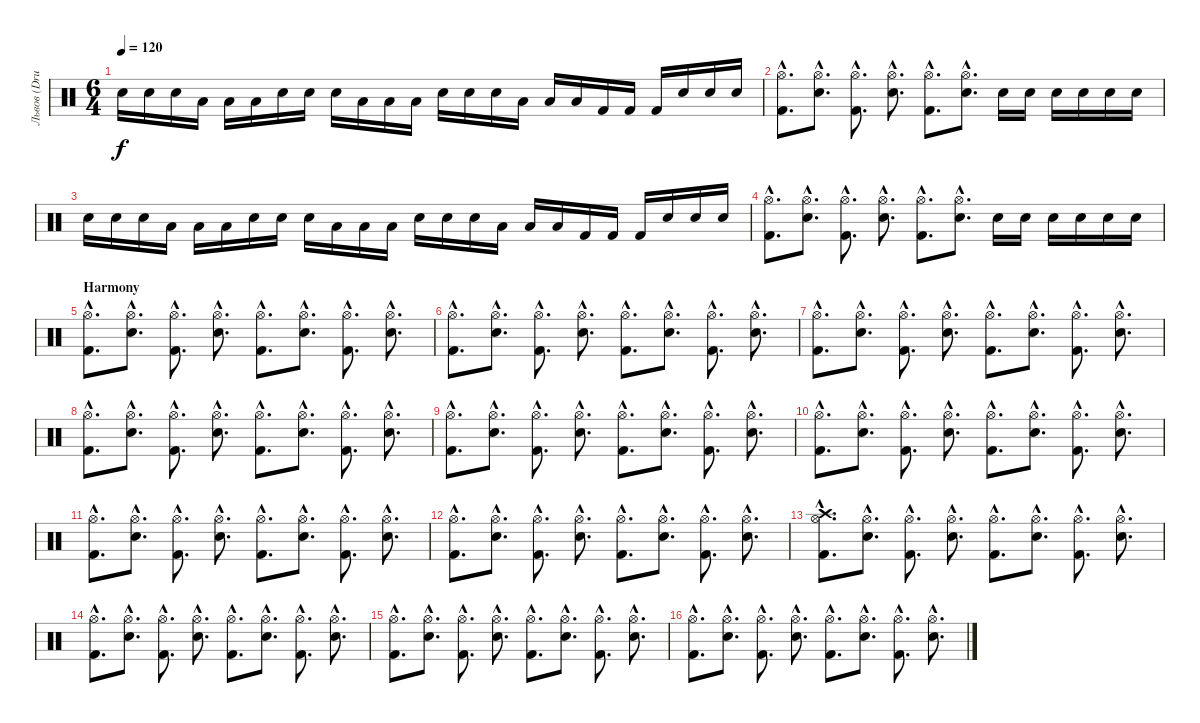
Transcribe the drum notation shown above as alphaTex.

\track ("Львов (Drums)" "Львов (Dru") {instrument percussion}
\staff {score}
\articulation defaults
\ts (6 4)
\tempo 120
\clef neutral
\ks c "Electric Snare (hit)".16{dy f} "Electric Snare (hit)".16 "Electric Snare (hit)".16 "Low Tom (hit)".16 "Low Tom (hit)".16 "Low Tom (hit)".16 "Electric Snare (hit)".16 "Electric Snare (hit)".16 "Electric Snare (hit)".16 "Low Tom (hit)".16 "Low Tom (hit)".16 "Low Tom (hit)".16 "Electric Snare (hit)".16 "Electric Snare (hit)".16 "Electric Snare (hit)".16 "Low Tom (hit)".16 "Low Tom (hit)".16 "Low Tom (hit)".16 "Kick (hit) 2".16 "Kick (hit) 2".16 "Kick (hit) 2".16 "Electric Snare (hit)".16 "Electric Snare (hit)".16 "Electric Snare (hit)".16
|
("Kick (hit) 2"{hac} "Hi-Hat (open)"{hac}).8{d} ("Electric Snare (hit)"{hac} "Hi-Hat (open)"{hac}).8{d} ("Kick (hit) 2"{hac} "Hi-Hat (open)"{hac}).8{d} ("Electric Snare (hit)"{hac} "Hi-Hat (open)"{hac}).8{d} ("Kick (hit) 2"{hac} "Hi-Hat (open)"{hac}).8{d} ("Electric Snare (hit)"{hac} "Hi-Hat (open)"{hac}).8{d} "Electric Snare (hit)".16 "Electric Snare (hit)".16 "Electric Snare (hit)".16 "Electric Snare (hit)".16 "Electric Snare (hit)".16 "Electric Snare (hit)".16 |
"Electric Snare (hit)".16 "Electric Snare (hit)".16 "Electric Snare (hit)".16 "Low Tom (hit)".16 "Low Tom (hit)".16 "Low Tom (hit)".16 "Electric Snare (hit)".16 "Electric Snare (hit)".16 "Electric Snare (hit)".16 "Low Tom (hit)".16 "Low Tom (hit)".16 "Low Tom (hit)".16 "Electric Snare (hit)".16 "Electric Snare (hit)".16 "Electric Snare (hit)".16 "Low Tom (hit)".16 "Low Tom (hit)".16 "Low Tom (hit)".16 "Kick (hit) 2".16 "Kick (hit) 2".16 "Kick (hit) 2".16 "Electric Snare (hit)".16 "Electric Snare (hit)".16 "Electric Snare (hit)".16 |
("Kick (hit) 2"{hac} "Hi-Hat (open)"{hac}).8{d} ("Electric Snare (hit)"{hac} "Hi-Hat (open)"{hac}).8{d} ("Kick (hit) 2"{hac} "Hi-Hat (open)"{hac}).8{d} ("Electric Snare (hit)"{hac} "Hi-Hat (open)"{hac}).8{d} ("Kick (hit) 2"{hac} "Hi-Hat (open)"{hac}).8{d} ("Electric Snare (hit)"{hac} "Hi-Hat (open)"{hac}).8{d} "Electric Snare (hit)".16 "Electric Snare (hit)".16 "Electric Snare (hit)".16 "Electric Snare (hit)".16 "Electric Snare (hit)".16 "Electric Snare (hit)".16 |
\section ("" "Harmony")
("Kick (hit) 2"{hac} "Hi-Hat (open)"{hac}).8{d} ("Electric Snare (hit)"{hac} "Hi-Hat (open)"{hac}).8{d} ("Kick (hit) 2"{hac} "Hi-Hat (open)"{hac}).8{d} ("Electric Snare (hit)"{hac} "Hi-Hat (open)"{hac}).8{d} ("Kick (hit) 2"{hac} "Hi-Hat (open)"{hac}).8{d} ("Electric Snare (hit)"{hac} "Hi-Hat (open)"{hac}).8{d} ("Kick (hit) 2"{hac} "Hi-Hat (open)"{hac}).8{d} ("Electric Snare (hit)"{hac} "Hi-Hat (open)"{hac}).8{d} |
("Kick (hit) 2"{hac} "Hi-Hat (open)"{hac}).8{d} ("Electric Snare (hit)"{hac} "Hi-Hat (open)"{hac}).8{d} ("Kick (hit) 2"{hac} "Hi-Hat (open)"{hac}).8{d} ("Electric Snare (hit)"{hac} "Hi-Hat (open)"{hac}).8{d} ("Kick (hit) 2"{hac} "Hi-Hat (open)"{hac}).8{d} ("Electric Snare (hit)"{hac} "Hi-Hat (open)"{hac}).8{d} ("Kick (hit) 2"{hac} "Hi-Hat (open)"{hac}).8{d} ("Electric Snare (hit)"{hac} "Hi-Hat (open)"{hac}).8{d} |
("Kick (hit) 2"{hac} "Hi-Hat (open)"{hac}).8{d} ("Electric Snare (hit)"{hac} "Hi-Hat (open)"{hac}).8{d} ("Kick (hit) 2"{hac} "Hi-Hat (open)"{hac}).8{d} ("Electric Snare (hit)"{hac} "Hi-Hat (open)"{hac}).8{d} ("Kick (hit) 2"{hac} "Hi-Hat (open)"{hac}).8{d} ("Electric Snare (hit)"{hac} "Hi-Hat (open)"{hac}).8{d} ("Kick (hit) 2"{hac} "Hi-Hat (open)"{hac}).8{d} ("Electric Snare (hit)"{hac} "Hi-Hat (open)"{hac}).8{d} |
("Kick (hit) 2"{hac} "Hi-Hat (open)"{hac}).8{d} ("Electric Snare (hit)"{hac} "Hi-Hat (open)"{hac}).8{d} ("Kick (hit) 2"{hac} "Hi-Hat (open)"{hac}).8{d} ("Electric Snare (hit)"{hac} "Hi-Hat (open)"{hac}).8{d} ("Kick (hit) 2"{hac} "Hi-Hat (open)"{hac}).8{d} ("Electric Snare (hit)"{hac} "Hi-Hat (open)"{hac}).8{d} ("Kick (hit) 2"{hac} "Hi-Hat (open)"{hac}).8{d} ("Electric Snare (hit)"{hac} "Hi-Hat (open)"{hac}).8{d} |
("Kick (hit) 2"{hac} "Hi-Hat (open)"{hac}).8{d} ("Electric Snare (hit)"{hac} "Hi-Hat (open)"{hac}).8{d} ("Kick (hit) 2"{hac} "Hi-Hat (open)"{hac}).8{d} ("Electric Snare (hit)"{hac} "Hi-Hat (open)"{hac}).8{d} ("Kick (hit) 2"{hac} "Hi-Hat (open)"{hac}).8{d} ("Electric Snare (hit)"{hac} "Hi-Hat (open)"{hac}).8{d} ("Kick (hit) 2"{hac} "Hi-Hat (open)"{hac}).8{d} ("Electric Snare (hit)"{hac} "Hi-Hat (open)"{hac}).8{d} |
("Kick (hit) 2"{hac} "Hi-Hat (open)"{hac}).8{d} ("Electric Snare (hit)"{hac} "Hi-Hat (open)"{hac}).8{d} ("Kick (hit) 2"{hac} "Hi-Hat (open)"{hac}).8{d} ("Electric Snare (hit)"{hac} "Hi-Hat (open)"{hac}).8{d} ("Kick (hit) 2"{hac} "Hi-Hat (open)"{hac}).8{d} ("Electric Snare (hit)"{hac} "Hi-Hat (open)"{hac}).8{d} ("Kick (hit) 2"{hac} "Hi-Hat (open)"{hac}).8{d} ("Electric Snare (hit)"{hac} "Hi-Hat (open)"{hac}).8{d} |
("Kick (hit) 2"{hac} "Hi-Hat (open)"{hac}).8{d} ("Electric Snare (hit)"{hac} "Hi-Hat (open)"{hac}).8{d} ("Kick (hit) 2"{hac} "Hi-Hat (open)"{hac}).8{d} ("Electric Snare (hit)"{hac} "Hi-Hat (open)"{hac}).8{d} ("Kick (hit) 2"{hac} "Hi-Hat (open)"{hac}).8{d} ("Electric Snare (hit)"{hac} "Hi-Hat (open)"{hac}).8{d} ("Kick (hit) 2"{hac} "Hi-Hat (open)"{hac}).8{d} ("Electric Snare (hit)"{hac} "Hi-Hat (open)"{hac}).8{d} |
("Kick (hit) 2"{hac} "Hi-Hat (open)"{hac}).8{d} ("Electric Snare (hit)"{hac} "Hi-Hat (open)"{hac}).8{d} ("Kick (hit) 2"{hac} "Hi-Hat (open)"{hac}).8{d} ("Electric Snare (hit)"{hac} "Hi-Hat (open)"{hac}).8{d} ("Kick (hit) 2"{hac} "Hi-Hat (open)"{hac}).8{d} ("Electric Snare (hit)"{hac} "Hi-Hat (open)"{hac}).8{d} ("Kick (hit) 2"{hac} "Hi-Hat (open)"{hac}).8{d} ("Electric Snare (hit)"{hac} "Hi-Hat (open)"{hac}).8{d} |
("Kick (hit) 2"{hac} "Crash high (hit)"{hac} "Hi-Hat (open)"{hac}).8{d} ("Electric Snare (hit)"{hac} "Hi-Hat (open)"{hac}).8{d} ("Kick (hit) 2"{hac} "Hi-Hat (open)"{hac}).8{d} ("Electric Snare (hit)"{hac} "Hi-Hat (open)"{hac}).8{d} ("Kick (hit) 2"{hac} "Hi-Hat (open)"{hac}).8{d} ("Electric Snare (hit)"{hac} "Hi-Hat (open)"{hac}).8{d} ("Kick (hit) 2"{hac} "Hi-Hat (open)"{hac}).8{d} ("Electric Snare (hit)"{hac} "Hi-Hat (open)"{hac}).8{d} |
("Kick (hit) 2"{hac} "Hi-Hat (open)"{hac}).8{d} ("Electric Snare (hit)"{hac} "Hi-Hat (open)"{hac}).8{d} ("Kick (hit) 2"{hac} "Hi-Hat (open)"{hac}).8{d} ("Electric Snare (hit)"{hac} "Hi-Hat (open)"{hac}).8{d} ("Kick (hit) 2"{hac} "Hi-Hat (open)"{hac}).8{d} ("Electric Snare (hit)"{hac} "Hi-Hat (open)"{hac}).8{d} ("Kick (hit) 2"{hac} "Hi-Hat (open)"{hac}).8{d} ("Electric Snare (hit)"{hac} "Hi-Hat (open)"{hac}).8{d} |
("Kick (hit) 2"{hac} "Hi-Hat (open)"{hac}).8{d} ("Electric Snare (hit)"{hac} "Hi-Hat (open)"{hac}).8{d} ("Kick (hit) 2"{hac} "Hi-Hat (open)"{hac}).8{d} ("Electric Snare (hit)"{hac} "Hi-Hat (open)"{hac}).8{d} ("Kick (hit) 2"{hac} "Hi-Hat (open)"{hac}).8{d} ("Electric Snare (hit)"{hac} "Hi-Hat (open)"{hac}).8{d} ("Kick (hit) 2"{hac} "Hi-Hat (open)"{hac}).8{d} ("Electric Snare (hit)"{hac} "Hi-Hat (open)"{hac}).8{d} |
("Kick (hit) 2"{hac} "Hi-Hat (open)"{hac}).8{d} ("Electric Snare (hit)"{hac} "Hi-Hat (open)"{hac}).8{d} ("Kick (hit) 2"{hac} "Hi-Hat (open)"{hac}).8{d} ("Electric Snare (hit)"{hac} "Hi-Hat (open)"{hac}).8{d} ("Kick (hit) 2"{hac} "Hi-Hat (open)"{hac}).8{d} ("Electric Snare (hit)"{hac} "Hi-Hat (open)"{hac}).8{d} ("Kick (hit) 2"{hac} "Hi-Hat (open)"{hac}).8{d} ("Electric Snare (hit)"{hac} "Hi-Hat (open)"{hac}).8{d}
